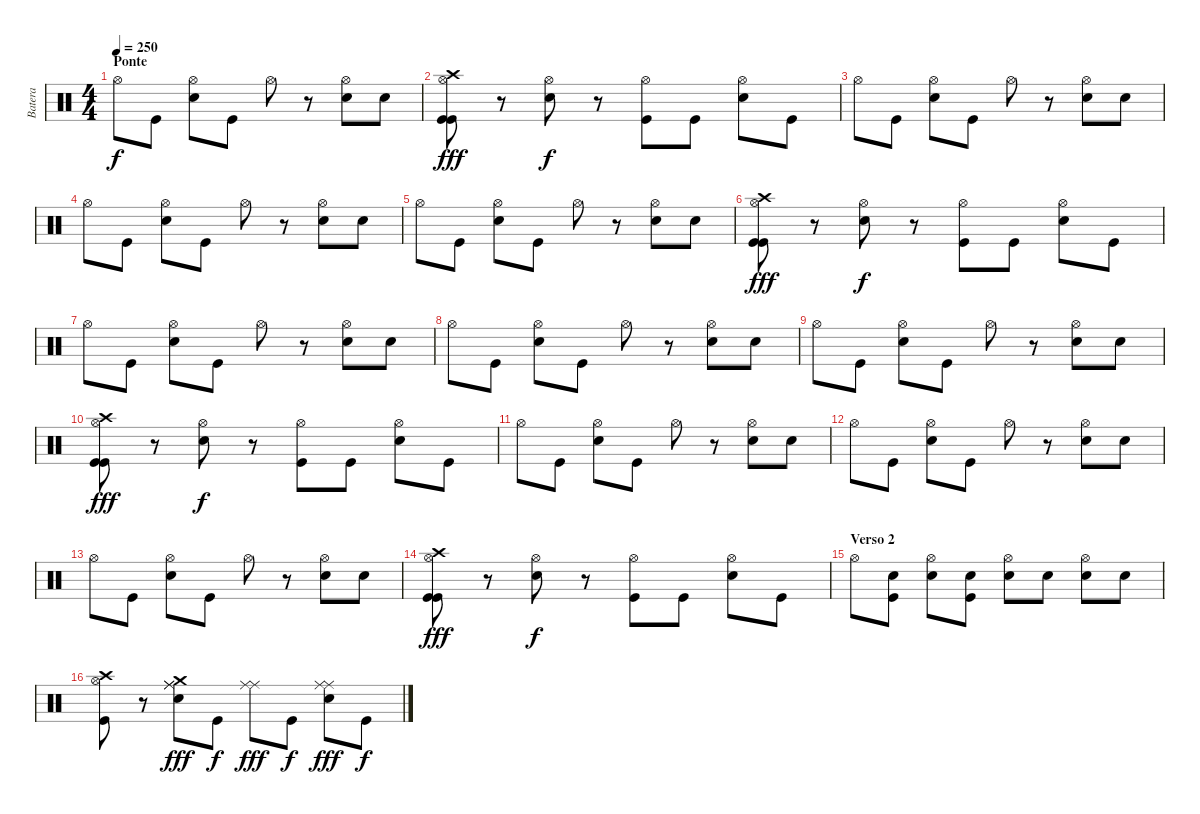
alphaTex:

\track ("Batera" "Batera") {instrument percussion}
\staff {score}
\articulation defaults
\ts (4 4)
\section ("" "Ponte ")
\tempo 250
\clef neutral
\ks c "Hi-Hat (open)".8{dy f} "Kick (hit)".8
("Hi-Hat (open)" "Electric Snare (hit)").8 "Kick (hit)".8 "Hi-Hat (open)".8 r.8 ("Hi-Hat (open)" "Electric Snare (hit)").8 "Electric Snare (hit)".8 |
("Hi-Hat (open)" "Crash high (hit)" "Kick (hit)" "Kick (hit)").8{dy fff} r.8 ("Hi-Hat (open)" "Electric Snare (hit)").8{dy f} r.8 ("Hi-Hat (open)" "Kick (hit)").8 "Kick (hit)".8 ("Hi-Hat (open)" "Electric Snare (hit)").8 "Kick (hit)".8 |
"Hi-Hat (open)".8 "Kick (hit)".8 ("Hi-Hat (open)" "Electric Snare (hit)").8 "Kick (hit)".8 "Hi-Hat (open)".8 r.8 ("Hi-Hat (open)" "Electric Snare (hit)").8 "Electric Snare (hit)".8 |
"Hi-Hat (open)".8 "Kick (hit)".8 ("Hi-Hat (open)" "Electric Snare (hit)").8 "Kick (hit)".8 "Hi-Hat (open)".8 r.8 ("Hi-Hat (open)" "Electric Snare (hit)").8 "Electric Snare (hit)".8 |
"Hi-Hat (open)".8 "Kick (hit)".8 ("Hi-Hat (open)" "Electric Snare (hit)").8 "Kick (hit)".8 "Hi-Hat (open)".8 r.8 ("Hi-Hat (open)" "Electric Snare (hit)").8 "Electric Snare (hit)".8 |
("Hi-Hat (open)" "Crash high (hit)" "Kick (hit)" "Kick (hit)").8{dy fff} r.8 ("Hi-Hat (open)" "Electric Snare (hit)").8{dy f} r.8 ("Hi-Hat (open)" "Kick (hit)").8 "Kick (hit)".8 ("Hi-Hat (open)" "Electric Snare (hit)").8 "Kick (hit)".8 |
"Hi-Hat (open)".8 "Kick (hit)".8 ("Hi-Hat (open)" "Electric Snare (hit)").8 "Kick (hit)".8 "Hi-Hat (open)".8 r.8 ("Hi-Hat (open)" "Electric Snare (hit)").8 "Electric Snare (hit)".8 |
"Hi-Hat (open)".8 "Kick (hit)".8 ("Hi-Hat (open)" "Electric Snare (hit)").8 "Kick (hit)".8 "Hi-Hat (open)".8 r.8 ("Hi-Hat (open)" "Electric Snare (hit)").8 "Electric Snare (hit)".8 |
"Hi-Hat (open)".8 "Kick (hit)".8 ("Hi-Hat (open)" "Electric Snare (hit)").8 "Kick (hit)".8 "Hi-Hat (open)".8 r.8 ("Hi-Hat (open)" "Electric Snare (hit)").8 "Electric Snare (hit)".8 |
("Hi-Hat (open)" "Crash high (hit)" "Kick (hit)" "Kick (hit)").8{dy fff} r.8 ("Hi-Hat (open)" "Electric Snare (hit)").8{dy f} r.8 ("Hi-Hat (open)" "Kick (hit)").8 "Kick (hit)".8 ("Hi-Hat (open)" "Electric Snare (hit)").8 "Kick (hit)".8 |
"Hi-Hat (open)".8 "Kick (hit)".8 ("Hi-Hat (open)" "Electric Snare (hit)").8 "Kick (hit)".8 "Hi-Hat (open)".8 r.8 ("Hi-Hat (open)" "Electric Snare (hit)").8 "Electric Snare (hit)".8 |
"Hi-Hat (open)".8 "Kick (hit)".8 ("Hi-Hat (open)" "Electric Snare (hit)").8 "Kick (hit)".8 "Hi-Hat (open)".8 r.8 ("Hi-Hat (open)" "Electric Snare (hit)").8 "Electric Snare (hit)".8 |
"Hi-Hat (open)".8 "Kick (hit)".8 ("Hi-Hat (open)" "Electric Snare (hit)").8 "Kick (hit)".8 "Hi-Hat (open)".8 r.8 ("Hi-Hat (open)" "Electric Snare (hit)").8 "Electric Snare (hit)".8 |
("Hi-Hat (open)" "Crash high (hit)" "Kick (hit)" "Kick (hit)").8{dy fff} r.8 ("Hi-Hat (open)" "Electric Snare (hit)").8{dy f} r.8 ("Hi-Hat (open)" "Kick (hit)").8 "Kick (hit)".8 ("Hi-Hat (open)" "Electric Snare (hit)").8 "Kick (hit)".8 |
\section ("" "Verso 2")
"Hi-Hat (open)".8 ("Electric Snare (hit)" "Kick (hit)").8 ("Hi-Hat (open)" "Electric Snare (hit)").8 ("Snare (hit) 2" "Kick (hit)").8 ("Hi-Hat (open)" "Snare (hit) 2").8 "Electric Snare (hit)".8 ("Hi-Hat (open)" "Electric Snare (hit)").8 "Snare (hit) 2".8 |
("Crash high (hit)" "Hi-Hat (open)" "Kick (hit)").8 r.8 ("Crash medium (hit)" "Ride (middle)" "Ride (middle)" "Electric Snare (hit)").8{dy fff} "Kick (hit)".8{dy f} ("Ride (middle)" "Ride (middle)").8{dy fff} "Kick (hit)".8{dy f} ("Ride (middle)" "Ride (middle)" "Electric Snare (hit)").8{dy fff} "Kick (hit)".8{dy f}
